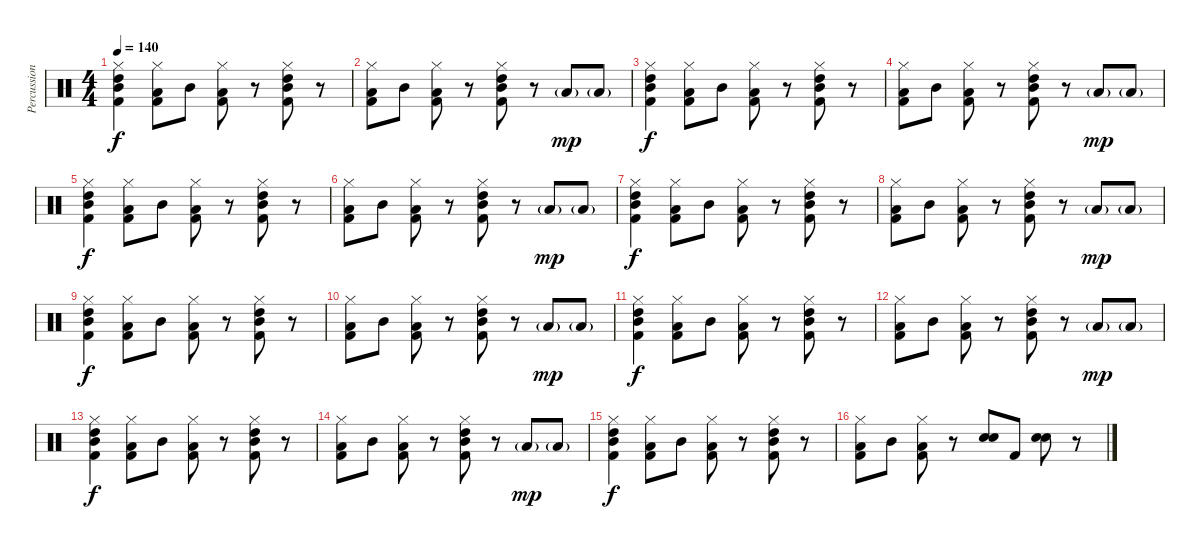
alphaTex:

\track ("Percussion" "Percussion") {instrument percussion}
\staff {score}
\articulation defaults
\ts (4 4)
\tempo 140
\clef neutral
\ks c
("Hi-Hat (closed)" "Mid Tom (hit)" "High Tom (hit)" "Kick (hit) 2").4{dy f} ("Hi-Hat (closed)" "Low Tom (hit)" "Kick (hit) 2").8 "Mid Tom (hit)".8 ("Hi-Hat (closed)" "Low Tom (hit)" "Kick (hit) 2").8 r.8 ("Mid Tom (hit)" "Hi-Hat (closed)" "High Tom (hit)" "Kick (hit) 2").8 r.8 |
("Hi-Hat (closed)" "Low Tom (hit)" "Kick (hit) 2").8 "Mid Tom (hit)".8 ("Hi-Hat (closed)" "Low Tom (hit)" "Kick (hit) 2").8 r.8 ("High Tom (hit)" "Mid Tom (hit)" "Hi-Hat (closed)" "Kick (hit) 2").8 r.8 "Low Tom (hit)"{g}.8{dy mp} "Low Tom (hit)"{g}.8 |
("Hi-Hat (closed)" "Mid Tom (hit)" "High Tom (hit)" "Kick (hit) 2").4{dy f} ("Hi-Hat (closed)" "Low Tom (hit)" "Kick (hit) 2").8 "Mid Tom (hit)".8 ("Hi-Hat (closed)" "Low Tom (hit)" "Kick (hit) 2").8 r.8 ("Mid Tom (hit)" "Hi-Hat (closed)" "High Tom (hit)" "Kick (hit) 2").8 r.8 |
("Hi-Hat (closed)" "Low Tom (hit)" "Kick (hit) 2").8 "Mid Tom (hit)".8 ("Hi-Hat (closed)" "Low Tom (hit)" "Kick (hit) 2").8 r.8 ("High Tom (hit)" "Mid Tom (hit)" "Hi-Hat (closed)" "Kick (hit) 2").8 r.8 "Low Tom (hit)"{g}.8{dy mp} "Low Tom (hit)"{g}.8 |
("Hi-Hat (closed)" "Mid Tom (hit)" "High Tom (hit)" "Kick (hit) 2").4{dy f} ("Hi-Hat (closed)" "Low Tom (hit)" "Kick (hit) 2").8 "Mid Tom (hit)".8 ("Hi-Hat (closed)" "Low Tom (hit)" "Kick (hit) 2").8 r.8 ("Mid Tom (hit)" "Hi-Hat (closed)" "High Tom (hit)" "Kick (hit) 2").8 r.8 |
("Hi-Hat (closed)" "Low Tom (hit)" "Kick (hit) 2").8 "Mid Tom (hit)".8 ("Hi-Hat (closed)" "Low Tom (hit)" "Kick (hit) 2").8 r.8 ("High Tom (hit)" "Mid Tom (hit)" "Hi-Hat (closed)" "Kick (hit) 2").8 r.8 "Low Tom (hit)"{g}.8{dy mp} "Low Tom (hit)"{g}.8 |
("Hi-Hat (closed)" "Mid Tom (hit)" "High Tom (hit)" "Kick (hit) 2").4{dy f} ("Hi-Hat (closed)" "Low Tom (hit)" "Kick (hit) 2").8 "Mid Tom (hit)".8 ("Hi-Hat (closed)" "Low Tom (hit)" "Kick (hit) 2").8 r.8 ("Mid Tom (hit)" "Hi-Hat (closed)" "High Tom (hit)" "Kick (hit) 2").8 r.8 |
("Hi-Hat (closed)" "Low Tom (hit)" "Kick (hit) 2").8 "Mid Tom (hit)".8 ("Hi-Hat (closed)" "Low Tom (hit)" "Kick (hit) 2").8 r.8 ("High Tom (hit)" "Mid Tom (hit)" "Hi-Hat (closed)" "Kick (hit) 2").8 r.8 "Low Tom (hit)"{g}.8{dy mp} "Low Tom (hit)"{g}.8 |
("Hi-Hat (closed)" "Mid Tom (hit)" "High Tom (hit)" "Kick (hit) 2").4{dy f} ("Hi-Hat (closed)" "Low Tom (hit)" "Kick (hit) 2").8 "Mid Tom (hit)".8 ("Hi-Hat (closed)" "Low Tom (hit)" "Kick (hit) 2").8 r.8 ("Mid Tom (hit)" "Hi-Hat (closed)" "High Tom (hit)" "Kick (hit) 2").8 r.8 |
("Hi-Hat (closed)" "Low Tom (hit)" "Kick (hit) 2").8 "Mid Tom (hit)".8 ("Hi-Hat (closed)" "Low Tom (hit)" "Kick (hit) 2").8 r.8 ("High Tom (hit)" "Mid Tom (hit)" "Hi-Hat (closed)" "Kick (hit) 2").8 r.8 "Low Tom (hit)"{g}.8{dy mp} "Low Tom (hit)"{g}.8 |
("Hi-Hat (closed)" "Mid Tom (hit)" "High Tom (hit)" "Kick (hit) 2").4{dy f} ("Hi-Hat (closed)" "Low Tom (hit)" "Kick (hit) 2").8 "Mid Tom (hit)".8 ("Hi-Hat (closed)" "Low Tom (hit)" "Kick (hit) 2").8 r.8 ("Mid Tom (hit)" "Hi-Hat (closed)" "High Tom (hit)" "Kick (hit) 2").8 r.8 |
("Hi-Hat (closed)" "Low Tom (hit)" "Kick (hit) 2").8 "Mid Tom (hit)".8 ("Hi-Hat (closed)" "Low Tom (hit)" "Kick (hit) 2").8 r.8 ("High Tom (hit)" "Mid Tom (hit)" "Hi-Hat (closed)" "Kick (hit) 2").8 r.8 "Low Tom (hit)"{g}.8{dy mp} "Low Tom (hit)"{g}.8 |
("Hi-Hat (closed)" "Mid Tom (hit)" "High Tom (hit)" "Kick (hit) 2").4{dy f} ("Hi-Hat (closed)" "Low Tom (hit)" "Kick (hit) 2").8 "Mid Tom (hit)".8 ("Hi-Hat (closed)" "Low Tom (hit)" "Kick (hit) 2").8 r.8 ("Mid Tom (hit)" "Hi-Hat (closed)" "High Tom (hit)" "Kick (hit) 2").8 r.8 |
("Hi-Hat (closed)" "Low Tom (hit)" "Kick (hit) 2").8 "Mid Tom (hit)".8 ("Hi-Hat (closed)" "Low Tom (hit)" "Kick (hit) 2").8 r.8 ("High Tom (hit)" "Mid Tom (hit)" "Hi-Hat (closed)" "Kick (hit) 2").8 r.8 "Low Tom (hit)"{g}.8{dy mp} "Low Tom (hit)"{g}.8 |
("Hi-Hat (closed)" "Mid Tom (hit)" "High Tom (hit)" "Kick (hit) 2").4{dy f} ("Hi-Hat (closed)" "Low Tom (hit)" "Kick (hit) 2").8 "Mid Tom (hit)".8 ("Hi-Hat (closed)" "Low Tom (hit)" "Kick (hit) 2").8 r.8 ("Mid Tom (hit)" "Hi-Hat (closed)" "High Tom (hit)" "Kick (hit) 2").8 r.8 |
("Hi-Hat (closed)" "Low Tom (hit)" "Kick (hit) 2").8 "Mid Tom (hit)".8 ("Hi-Hat (closed)" "Low Tom (hit)" "Kick (hit) 2").8 r.8 ("Electric Snare (hit)" "Electric Snare (hit)").8 "Kick (hit) 2".8 ("Electric Snare (hit)" "Electric Snare (hit)").8 r.8
